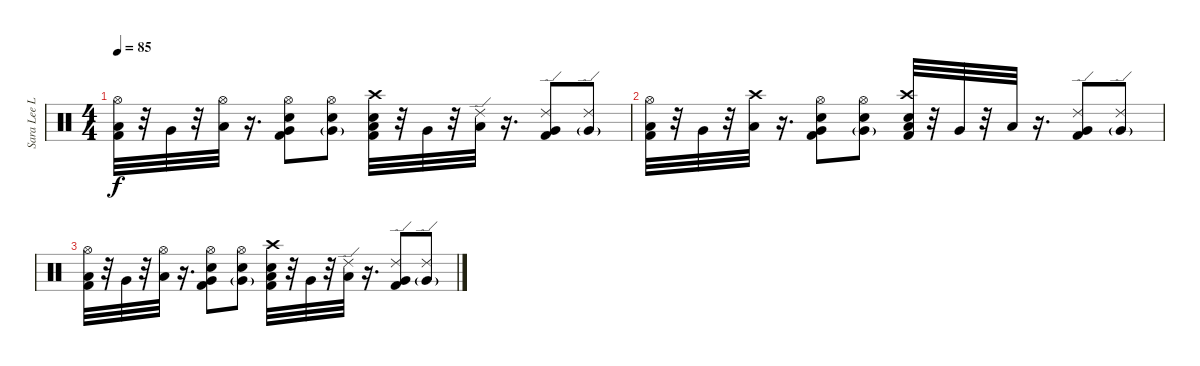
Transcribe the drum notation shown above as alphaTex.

\track ("Sara Lee Lucas [Drums]" "Sara Lee L") {instrument percussion}
\staff {score}
\articulation defaults
\ts (4 4)
\tempo 85
\clef neutral
\ks c
("Hi-Hat (open)" "Low Tom (hit)" "Kick (hit) 2").32{dy f} r.32 "Very Low Tom (hit)".32 r.32 ("Hi-Hat (open)" "Low Floor Tom (hit)").32 r.16{d} ("Hi-Hat (open)" "Very Low Tom (hit)" "Snare (hit) 2" "Kick (hit) 2").8 ("Hi-Hat (open)" "Very Low Tom (hit)"{g} "Snare (hit) 2").8 ("Crash high (hit)" "Low Tom (hit)" "Electric Snare (hit)" "Kick (hit) 2").32 r.32 "Very Low Tom (hit)".32 r.32 ("Ride (edge) 2" "Low Floor Tom (hit)").32 r.16{d} ("Ride (edge) 2" "Very Low Tom (hit)" "Kick (hit) 2").8 ("Ride (edge) 2" "Very Low Tom (hit)"{g}).8 |
("Hi-Hat (open)" "Low Tom (hit)" "Kick (hit) 2").32 r.32 "Very Low Tom (hit)".32 r.32 ("Crash high (hit)" "Low Floor Tom (hit)").32 r.16{d} ("Hi-Hat (open)" "Very Low Tom (hit)" "Snare (hit) 2" "Kick (hit) 2").8 ("Hi-Hat (open)" "Very Low Tom (hit)"{g} "Snare (hit) 2").8 ("Crash high (hit)" "Low Tom (hit)" "Electric Snare (hit)" "Kick (hit) 2").32 r.32 "Very Low Tom (hit)".32 r.32 "Low Floor Tom (hit)".32 r.16{d} ("Ride (edge) 2" "Very Low Tom (hit)" "Kick (hit) 2").8 ("Ride (edge) 2" "Very Low Tom (hit)"{g}).8 |
("Hi-Hat (open)" "Low Tom (hit)" "Kick (hit) 2").32 r.32 "Very Low Tom (hit)".32 r.32 ("Hi-Hat (open)" "Low Floor Tom (hit)").32 r.16{d} ("Hi-Hat (open)" "Very Low Tom (hit)" "Snare (hit) 2" "Kick (hit) 2").8 ("Hi-Hat (open)" "Very Low Tom (hit)"{g} "Snare (hit) 2").8 ("Crash high (hit)" "Low Tom (hit)" "Electric Snare (hit)" "Kick (hit) 2").32 r.32 "Very Low Tom (hit)".32 r.32 ("Ride (edge) 2" "Low Floor Tom (hit)").32 r.16{d} ("Ride (edge) 2" "Very Low Tom (hit)" "Kick (hit) 2").8 ("Ride (edge) 2" "Very Low Tom (hit)"{g}).8
